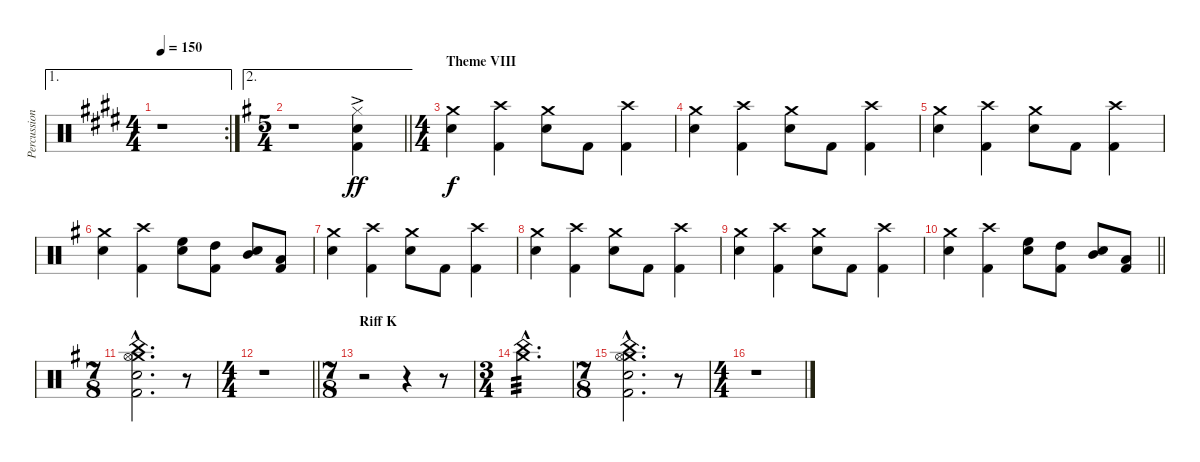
\track ("Percussion" "Percussion") {instrument percussion}
\staff {score}
\articulation defaults
\ae 1
\rc 2
\ts (4 4)
\tempo 150
\clef neutral
\ks c#minor
r.1{dy f} |
\ae 2
\ts (5 4)
\barLineRight lightlight
\ks eminor
r.1 ("Hi-Hat (closed)"{ac} "Snare (hit) 2"{ac} "Kick (hit) 2"{ac}).4{dy ff} |
\ts (4 4)
\section ("" "Theme VIII")
("Crash medium (hit)" "Snare (hit) 2").4{dy f} ("Crash high (hit)" "Kick (hit) 2").4 ("Crash medium (hit)" "Snare (hit) 2").8 "Kick (hit) 2".8 ("Crash high (hit)" "Kick (hit) 2").4 |
("Crash medium (hit)" "Snare (hit) 2").4 ("Crash high (hit)" "Kick (hit) 2").4 ("Crash medium (hit)" "Snare (hit) 2").8 "Kick (hit) 2".8 ("Crash high (hit)" "Kick (hit) 2").4 |
("Crash medium (hit)" "Snare (hit) 2").4 ("Crash high (hit)" "Kick (hit) 2").4 ("Crash medium (hit)" "Snare (hit) 2").8 "Kick (hit) 2".8 ("Crash high (hit)" "Kick (hit) 2").4 |
("Crash medium (hit)" "Snare (hit) 2").4 ("Crash high (hit)" "Kick (hit) 2").4 ("High Floor Tom (hit)" "Snare (hit) 2").8 ("High Tom (hit)" "Kick (hit) 2").8 ("Mid Tom (hit)" "Snare (hit) 2").8 ("Low Tom (hit)" "Kick (hit) 2").8 |
("Crash medium (hit)" "Snare (hit) 2").4 ("Crash high (hit)" "Kick (hit) 2").4 ("Crash medium (hit)" "Snare (hit) 2").8 "Kick (hit) 2".8 ("Crash high (hit)" "Kick (hit) 2").4 |
("Crash medium (hit)" "Snare (hit) 2").4 ("Crash high (hit)" "Kick (hit) 2").4 ("Crash medium (hit)" "Snare (hit) 2").8 "Kick (hit) 2".8 ("Crash high (hit)" "Kick (hit) 2").4 |
("Crash medium (hit)" "Snare (hit) 2").4 ("Crash high (hit)" "Kick (hit) 2").4 ("Crash medium (hit)" "Snare (hit) 2").8 "Kick (hit) 2".8 ("Crash high (hit)" "Kick (hit) 2").4 |
\barLineRight lightlight
("Crash medium (hit)" "Snare (hit) 2").4 ("Crash high (hit)" "Kick (hit) 2").4 ("High Floor Tom (hit)" "Snare (hit) 2").8 ("High Tom (hit)" "Kick (hit) 2").8 ("Mid Tom (hit)" "Snare (hit) 2").8 ("Low Tom (hit)" "Kick (hit) 2").8 |
\ts (7 8)
("Crash medium (hit)"{hac} "China (hit)"{hac} "Hi-Hat (open)"{hac} "Snare (hit) 2"{hac} "Kick (hit) 2"{hac}).2{d} r.8 |
\ts (4 4)
\barLineRight lightlight
r.1 |
\ts (7 8)
\section ("" "Riff K")
r.2{volume 0} r.4 r.8 |
\ts (3 4)
("Crash medium (hit)"{hac} "China (hit)"{hac}).2{d tp 3 volume 15} |
\ts (7 8)
("Crash medium (hit)"{hac} "China (hit)"{hac} "Hi-Hat (open)"{hac} "Snare (hit) 2"{hac} "Kick (hit) 2"{hac}).2{d} r.8 |
\ts (4 4)
r.1
